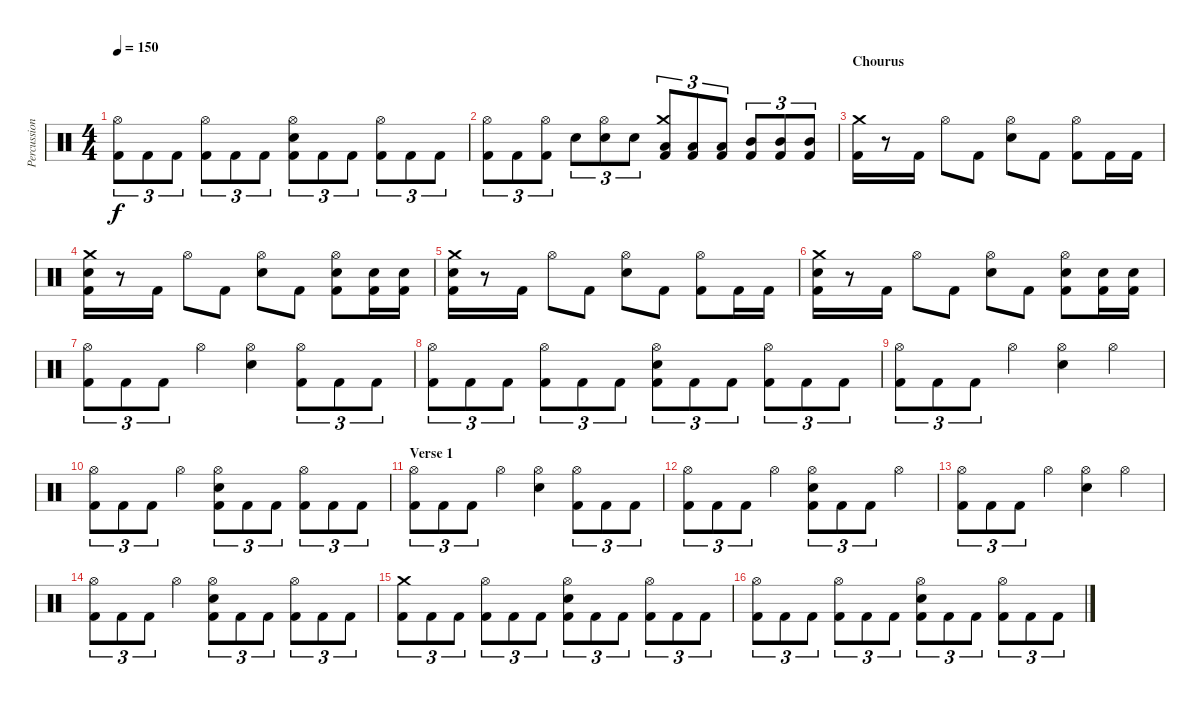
\track ("Percussion" "Percussion") {instrument percussion}
\staff {score}
\articulation defaults
\ts (4 4)
\tempo 150
\clef neutral
\ks c
("Hi-Hat (open)" "Kick (hit) 2").8{tu (3 2) dy f} "Kick (hit) 2".8{tu (3 2)} "Kick (hit) 2".8{tu (3 2)} ("Hi-Hat (open)" "Kick (hit) 2").8{tu (3 2)} "Kick (hit) 2".8{tu (3 2)} "Kick (hit) 2".8{tu (3 2)} ("Hi-Hat (open)" "Electric Snare (hit)" "Kick (hit) 2").8{tu (3 2)} "Kick (hit) 2".8{tu (3 2)} "Kick (hit) 2".8{tu (3 2)} ("Hi-Hat (open)" "Kick (hit) 2").8{tu (3 2)} "Kick (hit) 2".8{tu (3 2)} "Kick (hit) 2".8{tu (3 2)} |
("Hi-Hat (open)" "Kick (hit) 2").8{tu (3 2)} "Kick (hit) 2".8{tu (3 2)} ("Hi-Hat (open)" "Kick (hit) 2").8{tu (3 2)} "Electric Snare (hit)".8{tu (3 2)} ("Hi-Hat (open)" "Electric Snare (hit)").8{tu (3 2)} "Electric Snare (hit)".8{tu (3 2)} ("Crash medium (hit)" "Low Tom (hit)" "Kick (hit) 2").8{tu (3 2)} ("Low Tom (hit)" "Kick (hit) 2").8{tu (3 2)} ("Low Tom (hit)" "Kick (hit) 2").8{tu (3 2)} ("Mid Tom (hit)" "Kick (hit) 2").8{tu (3 2)} ("Mid Tom (hit)" "Kick (hit) 2").8{tu (3 2)} ("Mid Tom (hit)" "Kick (hit) 2").8{tu (3 2)} |
\section ("" "Chourus")
("Crash medium (hit)" "Kick (hit) 2").16 r.8 "Kick (hit) 2".16 "Hi-Hat (open)".8 "Kick (hit) 2".8 ("Hi-Hat (open)" "Electric Snare (hit)").8 "Kick (hit) 2".8 ("Hi-Hat (open)" "Kick (hit) 2").8 "Kick (hit) 2".16 "Kick (hit) 2".16 |
("Crash medium (hit)" "Electric Snare (hit)" "Kick (hit) 2").16 r.8 "Kick (hit) 2".16 "Hi-Hat (open)".8 "Kick (hit) 2".8 ("Hi-Hat (open)" "Electric Snare (hit)").8 "Kick (hit) 2".8 ("Hi-Hat (open)" "Electric Snare (hit)" "Kick (hit) 2").8 ("Electric Snare (hit)" "Kick (hit) 2").16 ("Electric Snare (hit)" "Kick (hit) 2").16 |
("Crash medium (hit)" "Electric Snare (hit)" "Kick (hit) 2").16 r.8 "Kick (hit) 2".16 "Hi-Hat (open)".8 "Kick (hit) 2".8 ("Hi-Hat (open)" "Electric Snare (hit)").8 "Kick (hit) 2".8 ("Hi-Hat (open)" "Kick (hit) 2").8 "Kick (hit) 2".16 "Kick (hit) 2".16 |
("Crash medium (hit)" "Electric Snare (hit)" "Kick (hit) 2").16 r.8 "Kick (hit) 2".16 "Hi-Hat (open)".8 "Kick (hit) 2".8 ("Hi-Hat (open)" "Electric Snare (hit)").8 "Kick (hit) 2".8 ("Hi-Hat (open)" "Electric Snare (hit)" "Kick (hit) 2").8 ("Electric Snare (hit)" "Kick (hit) 2").16 ("Electric Snare (hit)" "Kick (hit) 2").16 |
("Hi-Hat (open)" "Kick (hit) 2").8{tu (3 2)} "Kick (hit) 2".8{tu (3 2)} "Kick (hit) 2".8{tu (3 2)} "Hi-Hat (open)".4 ("Hi-Hat (open)" "Electric Snare (hit)").4 ("Hi-Hat (open)" "Kick (hit) 2").8{tu (3 2)} "Kick (hit) 2".8{tu (3 2)} "Kick (hit) 2".8{tu (3 2)} |
("Hi-Hat (open)" "Kick (hit) 2").8{tu (3 2)} "Kick (hit) 2".8{tu (3 2)} "Kick (hit) 2".8{tu (3 2)} ("Hi-Hat (open)" "Kick (hit) 2").8{tu (3 2)} "Kick (hit) 2".8{tu (3 2)} "Kick (hit) 2".8{tu (3 2)} ("Hi-Hat (open)" "Electric Snare (hit)" "Kick (hit) 2").8{tu (3 2)} "Kick (hit) 2".8{tu (3 2)} "Kick (hit) 2".8{tu (3 2)} ("Hi-Hat (open)" "Kick (hit) 2").8{tu (3 2)} "Kick (hit) 2".8{tu (3 2)} "Kick (hit) 2".8{tu (3 2)} |
("Hi-Hat (open)" "Kick (hit) 2").8{tu (3 2)} "Kick (hit) 2".8{tu (3 2)} "Kick (hit) 2".8{tu (3 2)} "Hi-Hat (open)".4 ("Hi-Hat (open)" "Electric Snare (hit)").4 "Hi-Hat (open)".4 |
("Hi-Hat (open)" "Kick (hit) 2").8{tu (3 2)} "Kick (hit) 2".8{tu (3 2)} "Kick (hit) 2".8{tu (3 2)} "Hi-Hat (open)".4 ("Hi-Hat (open)" "Electric Snare (hit)" "Kick (hit) 2").8{tu (3 2)} "Kick (hit) 2".8{tu (3 2)} "Kick (hit) 2".8{tu (3 2)} ("Hi-Hat (open)" "Kick (hit) 2").8{tu (3 2)} "Kick (hit) 2".8{tu (3 2)} "Kick (hit) 2".8{tu (3 2)} |
\section ("" "Verse 1")
("Hi-Hat (open)" "Kick (hit) 2").8{tu (3 2)} "Kick (hit) 2".8{tu (3 2)} "Kick (hit) 2".8{tu (3 2)} "Hi-Hat (open)".4 ("Hi-Hat (open)" "Electric Snare (hit)").4 ("Hi-Hat (open)" "Kick (hit) 2").8{tu (3 2)} "Kick (hit) 2".8{tu (3 2)} "Kick (hit) 2".8{tu (3 2)} |
("Hi-Hat (open)" "Kick (hit) 2").8{tu (3 2)} "Kick (hit) 2".8{tu (3 2)} "Kick (hit) 2".8{tu (3 2)} "Hi-Hat (open)".4 ("Hi-Hat (open)" "Electric Snare (hit)" "Kick (hit) 2").8{tu (3 2)} "Kick (hit) 2".8{tu (3 2)} "Kick (hit) 2".8{tu (3 2)} "Hi-Hat (open)".4 |
("Hi-Hat (open)" "Kick (hit) 2").8{tu (3 2)} "Kick (hit) 2".8{tu (3 2)} "Kick (hit) 2".8{tu (3 2)} "Hi-Hat (open)".4 ("Hi-Hat (open)" "Electric Snare (hit)").4 "Hi-Hat (open)".4 |
("Hi-Hat (open)" "Kick (hit) 2").8{tu (3 2)} "Kick (hit) 2".8{tu (3 2)} "Kick (hit) 2".8{tu (3 2)} "Hi-Hat (open)".4 ("Hi-Hat (open)" "Electric Snare (hit)" "Kick (hit) 2").8{tu (3 2)} "Kick (hit) 2".8{tu (3 2)} "Kick (hit) 2".8{tu (3 2)} ("Hi-Hat (open)" "Kick (hit) 2").8{tu (3 2)} "Kick (hit) 2".8{tu (3 2)} "Kick (hit) 2".8{tu (3 2)} |
("Crash medium (hit)" "Kick (hit) 2").8{tu (3 2)} "Kick (hit) 2".8{tu (3 2)} "Kick (hit) 2".8{tu (3 2)} ("Hi-Hat (open)" "Kick (hit) 2").8{tu (3 2)} "Kick (hit) 2".8{tu (3 2)} "Kick (hit) 2".8{tu (3 2)} ("Hi-Hat (open)" "Electric Snare (hit)" "Kick (hit) 2").8{tu (3 2)} "Kick (hit) 2".8{tu (3 2)} "Kick (hit) 2".8{tu (3 2)} ("Hi-Hat (open)" "Kick (hit) 2").8{tu (3 2)} "Kick (hit) 2".8{tu (3 2)} "Kick (hit) 2".8{tu (3 2)} |
("Hi-Hat (open)" "Kick (hit) 2").8{tu (3 2)} "Kick (hit) 2".8{tu (3 2)} "Kick (hit) 2".8{tu (3 2)} ("Hi-Hat (open)" "Kick (hit) 2").8{tu (3 2)} "Kick (hit) 2".8{tu (3 2)} "Kick (hit) 2".8{tu (3 2)} ("Hi-Hat (open)" "Electric Snare (hit)" "Kick (hit) 2").8{tu (3 2)} "Kick (hit) 2".8{tu (3 2)} "Kick (hit) 2".8{tu (3 2)} ("Hi-Hat (open)" "Kick (hit) 2").8{tu (3 2)} "Kick (hit) 2".8{tu (3 2)} "Kick (hit) 2".8{tu (3 2)}
